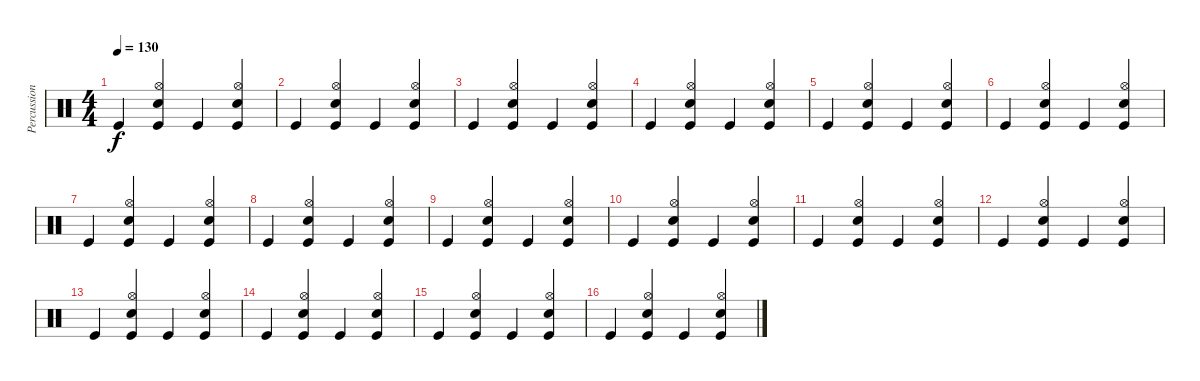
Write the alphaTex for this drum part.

\track ("Percussion" "Percussion") {instrument percussion}
\staff {score}
\articulation defaults
\ts (4 4)
\tempo 130
\clef neutral
\ks c "Kick (hit)".4{dy f}
("Kick (hit)" "Hi-Hat (open)" "Snare (hit) 2").4 "Kick (hit)".4 ("Kick (hit)" "Hi-Hat (open)" "Snare (hit) 2").4 |
"Kick (hit)".4 ("Kick (hit)" "Hi-Hat (open)" "Snare (hit) 2").4 "Kick (hit)".4 ("Kick (hit)" "Hi-Hat (open)" "Snare (hit) 2").4 |
"Kick (hit)".4 ("Kick (hit)" "Hi-Hat (open)" "Snare (hit) 2").4 "Kick (hit)".4 ("Kick (hit)" "Hi-Hat (open)" "Snare (hit) 2").4 |
"Kick (hit)".4 ("Kick (hit)" "Hi-Hat (open)" "Snare (hit) 2").4 "Kick (hit)".4 ("Kick (hit)" "Hi-Hat (open)" "Snare (hit) 2").4 |
"Kick (hit)".4 ("Kick (hit)" "Hi-Hat (open)" "Snare (hit) 2").4 "Kick (hit)".4 ("Kick (hit)" "Hi-Hat (open)" "Snare (hit) 2").4 |
"Kick (hit)".4 ("Kick (hit)" "Hi-Hat (open)" "Snare (hit) 2").4 "Kick (hit)".4 ("Kick (hit)" "Hi-Hat (open)" "Snare (hit) 2").4 |
"Kick (hit)".4 ("Kick (hit)" "Hi-Hat (open)" "Snare (hit) 2").4 "Kick (hit)".4 ("Kick (hit)" "Hi-Hat (open)" "Snare (hit) 2").4 |
"Kick (hit)".4 ("Kick (hit)" "Hi-Hat (open)" "Snare (hit) 2").4 "Kick (hit)".4 ("Kick (hit)" "Hi-Hat (open)" "Snare (hit) 2").4 |
"Kick (hit)".4 ("Kick (hit)" "Hi-Hat (open)" "Snare (hit) 2").4 "Kick (hit)".4 ("Kick (hit)" "Hi-Hat (open)" "Snare (hit) 2").4 |
"Kick (hit)".4 ("Kick (hit)" "Hi-Hat (open)" "Snare (hit) 2").4 "Kick (hit)".4 ("Kick (hit)" "Hi-Hat (open)" "Snare (hit) 2").4 |
"Kick (hit)".4 ("Kick (hit)" "Hi-Hat (open)" "Snare (hit) 2").4 "Kick (hit)".4 ("Kick (hit)" "Hi-Hat (open)" "Snare (hit) 2").4 |
"Kick (hit)".4 ("Kick (hit)" "Hi-Hat (open)" "Snare (hit) 2").4 "Kick (hit)".4 ("Kick (hit)" "Hi-Hat (open)" "Snare (hit) 2").4 |
"Kick (hit)".4 ("Kick (hit)" "Hi-Hat (open)" "Snare (hit) 2").4 "Kick (hit)".4 ("Kick (hit)" "Hi-Hat (open)" "Snare (hit) 2").4 |
"Kick (hit)".4 ("Kick (hit)" "Hi-Hat (open)" "Snare (hit) 2").4 "Kick (hit)".4 ("Kick (hit)" "Hi-Hat (open)" "Snare (hit) 2").4 |
"Kick (hit)".4 ("Kick (hit)" "Hi-Hat (open)" "Snare (hit) 2").4 "Kick (hit)".4 ("Kick (hit)" "Hi-Hat (open)" "Snare (hit) 2").4 |
"Kick (hit)".4 ("Kick (hit)" "Hi-Hat (open)" "Snare (hit) 2").4 "Kick (hit)".4 ("Kick (hit)" "Hi-Hat (open)" "Snare (hit) 2").4
